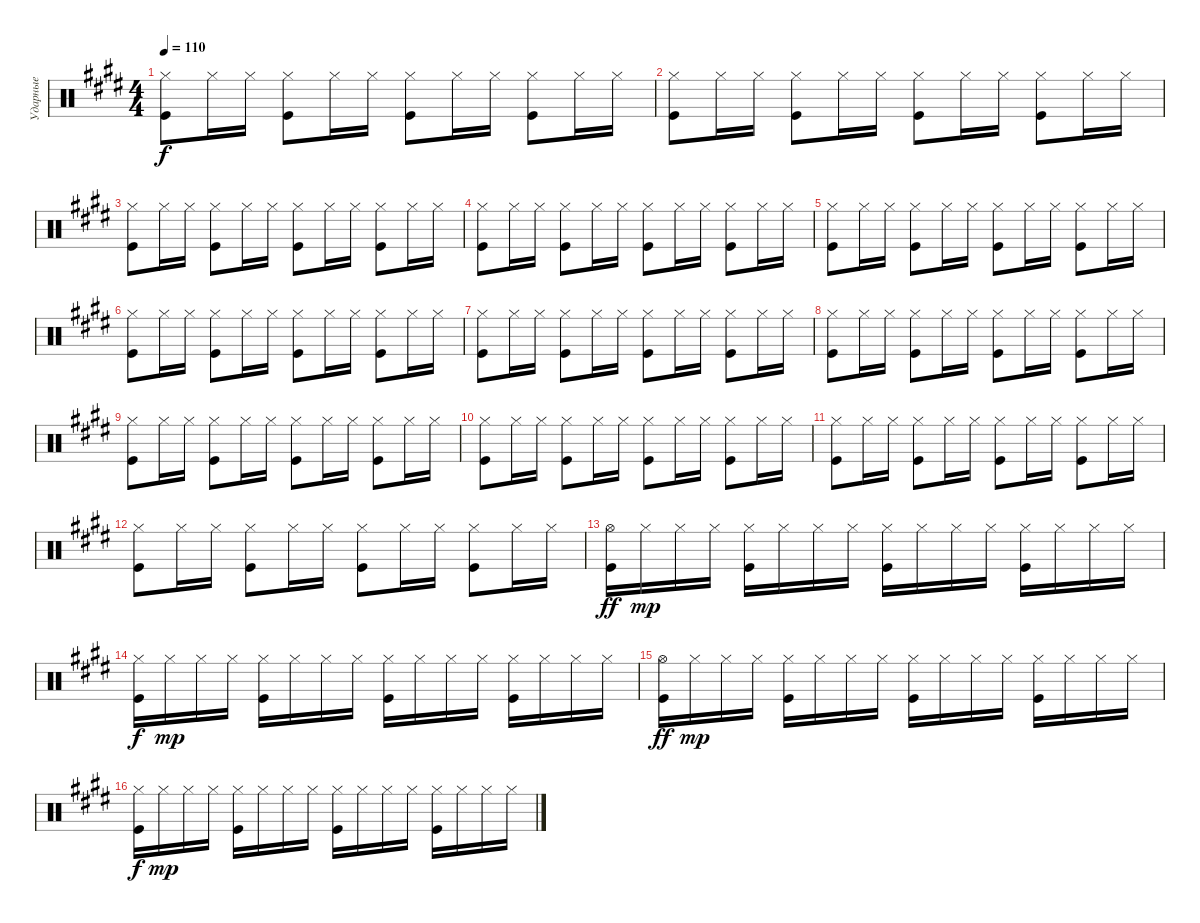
\track ("Ударные" "Ударные") {instrument percussion}
\staff {score}
\articulation defaults
\ts (4 4)
\tempo 110
\clef neutral
\ks c#minor
("Kick (hit)" "Hi-Hat (closed)").8{dy f} "Hi-Hat (closed)".16 "Hi-Hat (closed)".16 ("Kick (hit)" "Hi-Hat (closed)").8 "Hi-Hat (closed)".16 "Hi-Hat (closed)".16 ("Hi-Hat (closed)" "Kick (hit)").8 "Hi-Hat (closed)".16 "Hi-Hat (closed)".16 ("Kick (hit)" "Hi-Hat (closed)").8 "Hi-Hat (closed)".16 "Hi-Hat (closed)".16 |
("Kick (hit)" "Hi-Hat (closed)").8 "Hi-Hat (closed)".16 "Hi-Hat (closed)".16 ("Kick (hit)" "Hi-Hat (closed)").8 "Hi-Hat (closed)".16 "Hi-Hat (closed)".16 ("Hi-Hat (closed)" "Kick (hit)").8 "Hi-Hat (closed)".16 "Hi-Hat (closed)".16 ("Kick (hit)" "Hi-Hat (closed)").8 "Hi-Hat (closed)".16 "Hi-Hat (closed)".16 |
("Kick (hit)" "Hi-Hat (closed)").8 "Hi-Hat (closed)".16 "Hi-Hat (closed)".16 ("Kick (hit)" "Hi-Hat (closed)").8 "Hi-Hat (closed)".16 "Hi-Hat (closed)".16 ("Hi-Hat (closed)" "Kick (hit)").8 "Hi-Hat (closed)".16 "Hi-Hat (closed)".16 ("Kick (hit)" "Hi-Hat (closed)").8 "Hi-Hat (closed)".16 "Hi-Hat (closed)".16 |
("Kick (hit)" "Hi-Hat (closed)").8 "Hi-Hat (closed)".16 "Hi-Hat (closed)".16 ("Kick (hit)" "Hi-Hat (closed)").8 "Hi-Hat (closed)".16 "Hi-Hat (closed)".16 ("Hi-Hat (closed)" "Kick (hit)").8 "Hi-Hat (closed)".16 "Hi-Hat (closed)".16 ("Kick (hit)" "Hi-Hat (closed)").8 "Hi-Hat (closed)".16 "Hi-Hat (closed)".16 |
("Kick (hit)" "Hi-Hat (closed)").8 "Hi-Hat (closed)".16 "Hi-Hat (closed)".16 ("Kick (hit)" "Hi-Hat (closed)").8 "Hi-Hat (closed)".16 "Hi-Hat (closed)".16 ("Hi-Hat (closed)" "Kick (hit)").8 "Hi-Hat (closed)".16 "Hi-Hat (closed)".16 ("Kick (hit)" "Hi-Hat (closed)").8 "Hi-Hat (closed)".16 "Hi-Hat (closed)".16 |
("Kick (hit)" "Hi-Hat (closed)").8 "Hi-Hat (closed)".16 "Hi-Hat (closed)".16 ("Kick (hit)" "Hi-Hat (closed)").8 "Hi-Hat (closed)".16 "Hi-Hat (closed)".16 ("Hi-Hat (closed)" "Kick (hit)").8 "Hi-Hat (closed)".16 "Hi-Hat (closed)".16 ("Kick (hit)" "Hi-Hat (closed)").8 "Hi-Hat (closed)".16 "Hi-Hat (closed)".16 |
("Kick (hit)" "Hi-Hat (closed)").8 "Hi-Hat (closed)".16 "Hi-Hat (closed)".16 ("Kick (hit)" "Hi-Hat (closed)").8 "Hi-Hat (closed)".16 "Hi-Hat (closed)".16 ("Hi-Hat (closed)" "Kick (hit)").8 "Hi-Hat (closed)".16 "Hi-Hat (closed)".16 ("Kick (hit)" "Hi-Hat (closed)").8 "Hi-Hat (closed)".16 "Hi-Hat (closed)".16 |
("Kick (hit)" "Hi-Hat (closed)").8 "Hi-Hat (closed)".16 "Hi-Hat (closed)".16 ("Kick (hit)" "Hi-Hat (closed)").8 "Hi-Hat (closed)".16 "Hi-Hat (closed)".16 ("Hi-Hat (closed)" "Kick (hit)").8 "Hi-Hat (closed)".16 "Hi-Hat (closed)".16 ("Kick (hit)" "Hi-Hat (closed)").8 "Hi-Hat (closed)".16 "Hi-Hat (closed)".16 |
("Kick (hit)" "Hi-Hat (closed)").8 "Hi-Hat (closed)".16 "Hi-Hat (closed)".16 ("Kick (hit)" "Hi-Hat (closed)").8 "Hi-Hat (closed)".16 "Hi-Hat (closed)".16 ("Hi-Hat (closed)" "Kick (hit)").8 "Hi-Hat (closed)".16 "Hi-Hat (closed)".16 ("Kick (hit)" "Hi-Hat (closed)").8 "Hi-Hat (closed)".16 "Hi-Hat (closed)".16 |
("Kick (hit)" "Hi-Hat (closed)").8 "Hi-Hat (closed)".16 "Hi-Hat (closed)".16 ("Kick (hit)" "Hi-Hat (closed)").8 "Hi-Hat (closed)".16 "Hi-Hat (closed)".16 ("Hi-Hat (closed)" "Kick (hit)").8 "Hi-Hat (closed)".16 "Hi-Hat (closed)".16 ("Kick (hit)" "Hi-Hat (closed)").8 "Hi-Hat (closed)".16 "Hi-Hat (closed)".16 |
("Kick (hit)" "Hi-Hat (closed)").8 "Hi-Hat (closed)".16 "Hi-Hat (closed)".16 ("Kick (hit)" "Hi-Hat (closed)").8 "Hi-Hat (closed)".16 "Hi-Hat (closed)".16 ("Hi-Hat (closed)" "Kick (hit)").8 "Hi-Hat (closed)".16 "Hi-Hat (closed)".16 ("Kick (hit)" "Hi-Hat (closed)").8 "Hi-Hat (closed)".16 "Hi-Hat (closed)".16 |
("Kick (hit)" "Hi-Hat (closed)").8 "Hi-Hat (closed)".16 "Hi-Hat (closed)".16 ("Kick (hit)" "Hi-Hat (closed)").8 "Hi-Hat (closed)".16 "Hi-Hat (closed)".16 ("Hi-Hat (closed)" "Kick (hit)").8 "Hi-Hat (closed)".16 "Hi-Hat (closed)".16 ("Kick (hit)" "Hi-Hat (closed)").8 "Hi-Hat (closed)".16 "Hi-Hat (closed)".16 |
("Kick (hit)" "Hi-Hat (open)").16{dy ff} "Hi-Hat (closed)".16{dy mp} "Hi-Hat (closed)".16 "Hi-Hat (closed)".16 ("Hi-Hat (closed)" "Kick (hit)").16 "Hi-Hat (closed)".16 "Hi-Hat (closed)".16 "Hi-Hat (closed)".16 ("Hi-Hat (closed)" "Kick (hit)").16 "Hi-Hat (closed)".16 "Hi-Hat (closed)".16 "Hi-Hat (closed)".16 ("Hi-Hat (closed)" "Kick (hit)").16 "Hi-Hat (closed)".16 "Hi-Hat (closed)".16 "Hi-Hat (closed)".16 |
("Kick (hit)" "Hi-Hat (closed)").16{dy f} "Hi-Hat (closed)".16{dy mp} "Hi-Hat (closed)".16 "Hi-Hat (closed)".16 ("Hi-Hat (closed)" "Kick (hit)").16 "Hi-Hat (closed)".16 "Hi-Hat (closed)".16 "Hi-Hat (closed)".16 ("Hi-Hat (closed)" "Kick (hit)").16 "Hi-Hat (closed)".16 "Hi-Hat (closed)".16 "Hi-Hat (closed)".16 ("Hi-Hat (closed)" "Kick (hit)").16 "Hi-Hat (closed)".16 "Hi-Hat (closed)".16 "Hi-Hat (closed)".16 |
("Kick (hit)" "Hi-Hat (open)").16{dy ff} "Hi-Hat (closed)".16{dy mp} "Hi-Hat (closed)".16 "Hi-Hat (closed)".16 ("Hi-Hat (closed)" "Kick (hit)").16 "Hi-Hat (closed)".16 "Hi-Hat (closed)".16 "Hi-Hat (closed)".16 ("Hi-Hat (closed)" "Kick (hit)").16 "Hi-Hat (closed)".16 "Hi-Hat (closed)".16 "Hi-Hat (closed)".16 ("Hi-Hat (closed)" "Kick (hit)").16 "Hi-Hat (closed)".16 "Hi-Hat (closed)".16 "Hi-Hat (closed)".16 |
("Kick (hit)" "Hi-Hat (closed)").16{dy f} "Hi-Hat (closed)".16{dy mp} "Hi-Hat (closed)".16 "Hi-Hat (closed)".16 ("Hi-Hat (closed)" "Kick (hit)").16 "Hi-Hat (closed)".16 "Hi-Hat (closed)".16 "Hi-Hat (closed)".16 ("Hi-Hat (closed)" "Kick (hit)").16 "Hi-Hat (closed)".16 "Hi-Hat (closed)".16 "Hi-Hat (closed)".16 ("Hi-Hat (closed)" "Kick (hit)").16 "Hi-Hat (closed)".16 "Hi-Hat (closed)".16 "Hi-Hat (closed)".16
